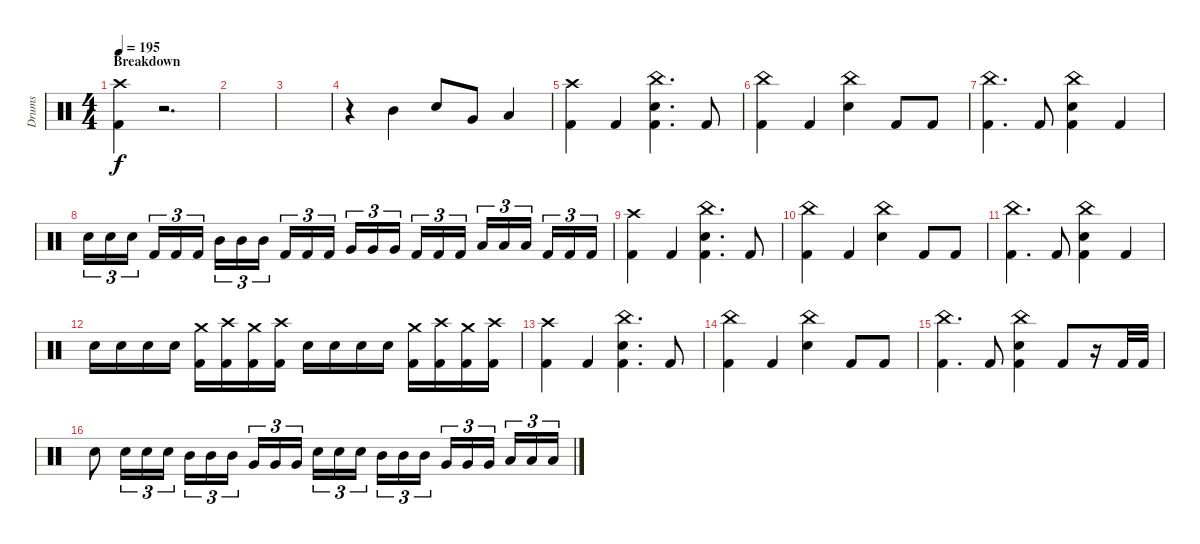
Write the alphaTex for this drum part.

\track ("Drums" "Drums") {instrument percussion}
\staff {score}
\articulation defaults
\ts (4 4)
\section ("" "Breakdown")
\tempo 195
\clef neutral
\ks c
("Crash high (hit)" "Kick (hit) 2").4{dy f} r.2{d volume 0} |
|
|
r.4{volume 14} "Mid Tom (hit)".4 "Snare (hit) 2".8 "Very Low Tom (hit)".8 "Low Floor Tom (hit)".4 |
("Crash high (hit)" "Kick (hit) 2").4 "Kick (hit) 2".4 ("China (hit)" "Snare (hit) 2" "Kick (hit) 2").4{d} "Kick (hit) 2".8 |
("China (hit)" "Kick (hit) 2").4 "Kick (hit) 2".4 ("China (hit)" "Snare (hit) 2").4 "Kick (hit) 2".8 "Kick (hit) 2".8 |
("China (hit)" "Kick (hit) 2").4{d} "Kick (hit) 2".8 ("China (hit)" "Snare (hit) 2" "Kick (hit) 2").4 "Kick (hit) 2".4 |
"Snare (hit) 2".16{tu (3 2)} "Snare (hit) 2".16{tu (3 2)} "Snare (hit) 2".16{tu (3 2) beam splitsecondary} "Kick (hit) 2".16{tu (3 2)} "Kick (hit) 2".16{tu (3 2)} "Kick (hit) 2".16{tu (3 2)} "Mid Tom (hit)".16{tu (3 2)} "Mid Tom (hit)".16{tu (3 2)} "Mid Tom (hit)".16{tu (3 2) beam splitsecondary} "Kick (hit) 2".16{tu (3 2)} "Kick (hit) 2".16{tu (3 2)} "Kick (hit) 2".16{tu (3 2)} "Very Low Tom (hit)".16{tu (3 2)} "Very Low Tom (hit)".16{tu (3 2)} "Very Low Tom (hit)".16{tu (3 2) beam splitsecondary} "Kick (hit) 2".16{tu (3 2)} "Kick (hit) 2".16{tu (3 2)} "Kick (hit) 2".16{tu (3 2)} "Low Floor Tom (hit)".16{tu (3 2)} "Low Floor Tom (hit)".16{tu (3 2)} "Low Floor Tom (hit)".16{tu (3 2) beam splitsecondary} "Kick (hit) 2".16{tu (3 2)} "Kick (hit) 2".16{tu (3 2)} "Kick (hit) 2".16{tu (3 2)} |
("Crash high (hit)" "Kick (hit) 2").4 "Kick (hit) 2".4 ("China (hit)" "Snare (hit) 2" "Kick (hit) 2").4{d} "Kick (hit) 2".8 |
("China (hit)" "Kick (hit) 2").4 "Kick (hit) 2".4 ("China (hit)" "Snare (hit) 2").4 "Kick (hit) 2".8 "Kick (hit) 2".8 |
("China (hit)" "Kick (hit) 2").4{d} "Kick (hit) 2".8 ("China (hit)" "Snare (hit) 2" "Kick (hit) 2").4 "Kick (hit) 2".4 |
"Snare (hit) 2".16 "Snare (hit) 2".16 "Snare (hit) 2".16 "Snare (hit) 2".16 ("Crash medium (hit)" "Kick (hit) 2").16 ("Crash high (hit)" "Kick (hit) 2").16 ("Crash medium (hit)" "Kick (hit) 2").16 ("Crash high (hit)" "Kick (hit) 2").16 "Snare (hit) 2".16 "Snare (hit) 2".16 "Snare (hit) 2".16 "Snare (hit) 2".16 ("Crash medium (hit)" "Kick (hit) 2").16 ("Crash high (hit)" "Kick (hit) 2").16 ("Crash medium (hit)" "Kick (hit) 2").16 ("Crash high (hit)" "Kick (hit) 2").16 |
("Crash high (hit)" "Kick (hit) 2").4 "Kick (hit) 2".4 ("China (hit)" "Snare (hit) 2" "Kick (hit) 2").4{d} "Kick (hit) 2".8 |
("China (hit)" "Kick (hit) 2").4 "Kick (hit) 2".4 ("China (hit)" "Snare (hit) 2").4 "Kick (hit) 2".8 "Kick (hit) 2".8 |
("China (hit)" "Kick (hit) 2").4{d} "Kick (hit) 2".8 ("China (hit)" "Snare (hit) 2" "Kick (hit) 2").4 "Kick (hit) 2".8 r.16 "Kick (hit) 2".32 "Kick (hit) 2".32 |
"Snare (hit) 2".8 "Snare (hit) 2".16{tu (3 2)} "Snare (hit) 2".16{tu (3 2)} "Snare (hit) 2".16{tu (3 2)} "Mid Tom (hit)".16{tu (3 2)} "Mid Tom (hit)".16{tu (3 2)} "Mid Tom (hit)".16{tu (3 2) beam splitsecondary} "Very Low Tom (hit)".16{tu (3 2)} "Very Low Tom (hit)".16{tu (3 2)} "Very Low Tom (hit)".16{tu (3 2)} "Snare (hit) 2".16{tu (3 2)} "Snare (hit) 2".16{tu (3 2)} "Snare (hit) 2".16{tu (3 2) beam splitsecondary} "Mid Tom (hit)".16{tu (3 2)} "Mid Tom (hit)".16{tu (3 2)} "Mid Tom (hit)".16{tu (3 2)} "Very Low Tom (hit)".16{tu (3 2)} "Very Low Tom (hit)".16{tu (3 2)} "Very Low Tom (hit)".16{tu (3 2) beam splitsecondary} "Low Floor Tom (hit)".16{tu (3 2)} "Low Floor Tom (hit)".16{tu (3 2)} "Low Floor Tom (hit)".16{tu (3 2)}
